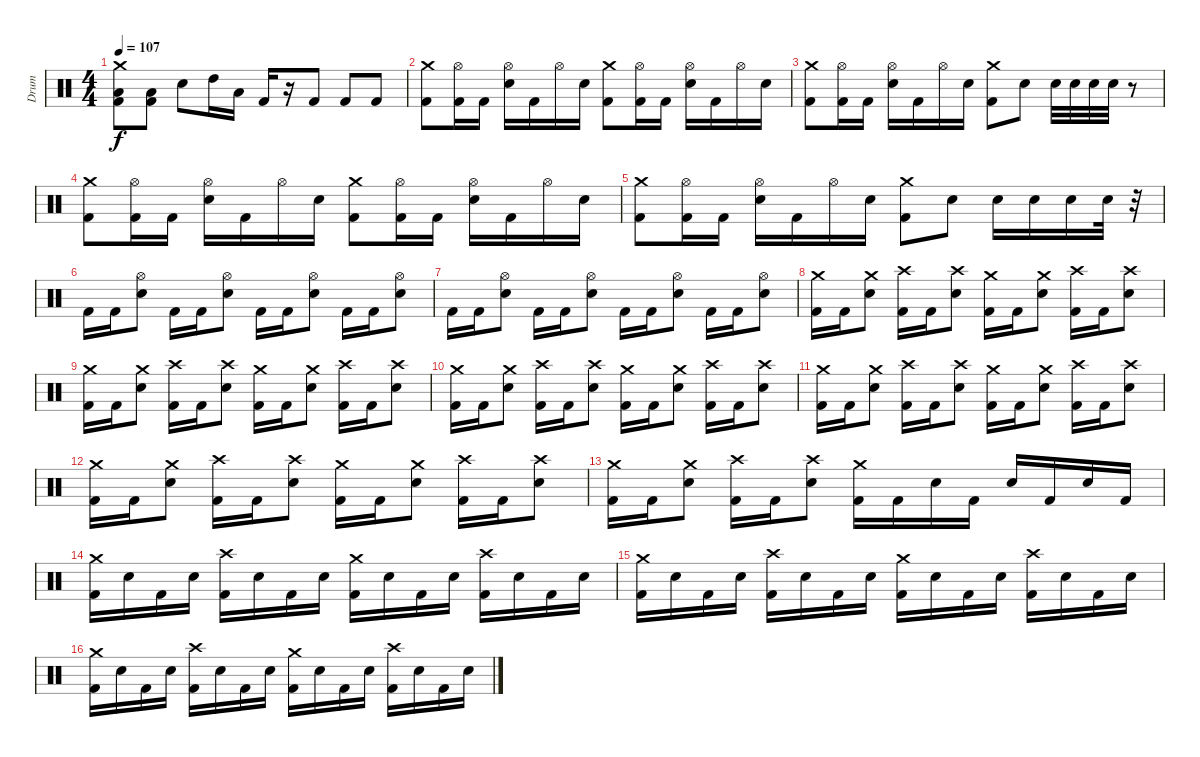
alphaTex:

\track ("Drum" "Drum") {instrument percussion}
\staff {score}
\articulation defaults
\ts (4 4)
\tempo 107
\clef neutral
\ks c
("Crash medium (hit)" "Low Floor Tom (hit)" "Kick (hit) 2").8{dy f} ("Low Floor Tom (hit)" "Kick (hit) 2").8 "Snare (hit) 2".8 "High Tom (hit)".16 "Low Tom (hit)".16 "Kick (hit) 2".16 r.16 "Kick (hit) 2".8 "Kick (hit) 2".8 "Kick (hit) 2".8 |
("Crash medium (hit)" "Kick (hit) 2").8 ("Hi-Hat (open)" "Kick (hit) 2").16 "Kick (hit) 2".16 ("Hi-Hat (open)" "Snare (hit) 2").16 "Kick (hit) 2".16 "Hi-Hat (open)".16 "Snare (hit) 2".16 ("Crash medium (hit)" "Kick (hit) 2").8 ("Hi-Hat (open)" "Kick (hit) 2").16 "Kick (hit) 2".16 ("Hi-Hat (open)" "Snare (hit) 2").16 "Kick (hit) 2".16 "Hi-Hat (open)".16 "Snare (hit) 2".16 |
("Crash medium (hit)" "Kick (hit) 2").8 ("Hi-Hat (open)" "Kick (hit) 2").16 "Kick (hit) 2".16 ("Hi-Hat (open)" "Snare (hit) 2").16 "Kick (hit) 2".16 "Hi-Hat (open)".16 "Snare (hit) 2".16 ("Crash medium (hit)" "Kick (hit) 2").8 "Snare (hit) 2".8 "Snare (hit) 2".32 "Snare (hit) 2".32 "Snare (hit) 2".32 "Snare (hit) 2".32 r.8 |
("Crash medium (hit)" "Kick (hit) 2").8 ("Hi-Hat (open)" "Kick (hit) 2").16 "Kick (hit) 2".16 ("Hi-Hat (open)" "Snare (hit) 2").16 "Kick (hit) 2".16 "Hi-Hat (open)".16 "Snare (hit) 2".16 ("Crash medium (hit)" "Kick (hit) 2").8 ("Hi-Hat (open)" "Kick (hit) 2").16 "Kick (hit) 2".16 ("Hi-Hat (open)" "Snare (hit) 2").16 "Kick (hit) 2".16 "Hi-Hat (open)".16 "Snare (hit) 2".16 |
("Crash medium (hit)" "Kick (hit) 2").8 ("Hi-Hat (open)" "Kick (hit) 2").16 "Kick (hit) 2".16 ("Hi-Hat (open)" "Snare (hit) 2").16 "Kick (hit) 2".16 "Hi-Hat (open)".16 "Snare (hit) 2".16 ("Crash medium (hit)" "Kick (hit) 2").8 "Snare (hit) 2".8 "Snare (hit) 2".16 "Snare (hit) 2".16 "Snare (hit) 2".16 "Snare (hit) 2".32 r.32 |
"Kick (hit) 2".16 "Kick (hit) 2".16 ("Hi-Hat (open)" "Snare (hit) 2").8 "Kick (hit) 2".16 "Kick (hit) 2".16 ("Hi-Hat (open)" "Snare (hit) 2").8 "Kick (hit) 2".16 "Kick (hit) 2".16 ("Hi-Hat (open)" "Snare (hit) 2").8 "Kick (hit) 2".16 "Kick (hit) 2".16 ("Hi-Hat (open)" "Snare (hit) 2").8 |
"Kick (hit) 2".16 "Kick (hit) 2".16 ("Hi-Hat (open)" "Snare (hit) 2").8 "Kick (hit) 2".16 "Kick (hit) 2".16 ("Hi-Hat (open)" "Snare (hit) 2").8 "Kick (hit) 2".16 "Kick (hit) 2".16 ("Hi-Hat (open)" "Snare (hit) 2").8 "Kick (hit) 2".16 "Kick (hit) 2".16 ("Hi-Hat (open)" "Snare (hit) 2").8 |
("Crash medium (hit)" "Kick (hit) 2").16 "Kick (hit) 2".16 ("Crash medium (hit)" "Snare (hit) 2").8 ("Crash high (hit)" "Kick (hit) 2").16 "Kick (hit) 2".16 ("Crash high (hit)" "Snare (hit) 2").8 ("Crash medium (hit)" "Kick (hit) 2").16 "Kick (hit) 2".16 ("Crash medium (hit)" "Snare (hit) 2").8 ("Crash high (hit)" "Kick (hit) 2").16 "Kick (hit) 2".16 ("Crash high (hit)" "Snare (hit) 2").8 |
("Crash medium (hit)" "Kick (hit) 2").16 "Kick (hit) 2".16 ("Crash medium (hit)" "Snare (hit) 2").8 ("Crash high (hit)" "Kick (hit) 2").16 "Kick (hit) 2".16 ("Crash high (hit)" "Snare (hit) 2").8 ("Crash medium (hit)" "Kick (hit) 2").16 "Kick (hit) 2".16 ("Crash medium (hit)" "Snare (hit) 2").8 ("Crash high (hit)" "Kick (hit) 2").16 "Kick (hit) 2".16 ("Crash high (hit)" "Snare (hit) 2").8 |
("Crash medium (hit)" "Kick (hit) 2").16 "Kick (hit) 2".16 ("Crash medium (hit)" "Snare (hit) 2").8 ("Crash high (hit)" "Kick (hit) 2").16 "Kick (hit) 2".16 ("Crash high (hit)" "Snare (hit) 2").8 ("Crash medium (hit)" "Kick (hit) 2").16 "Kick (hit) 2".16 ("Crash medium (hit)" "Snare (hit) 2").8 ("Crash high (hit)" "Kick (hit) 2").16 "Kick (hit) 2".16 ("Crash high (hit)" "Snare (hit) 2").8 |
("Crash medium (hit)" "Kick (hit) 2").16 "Kick (hit) 2".16 ("Crash medium (hit)" "Snare (hit) 2").8 ("Crash high (hit)" "Kick (hit) 2").16 "Kick (hit) 2".16 ("Crash high (hit)" "Snare (hit) 2").8 ("Crash medium (hit)" "Kick (hit) 2").16 "Kick (hit) 2".16 ("Crash medium (hit)" "Snare (hit) 2").8 ("Crash high (hit)" "Kick (hit) 2").16 "Kick (hit) 2".16 ("Crash high (hit)" "Snare (hit) 2").8 |
("Crash medium (hit)" "Kick (hit) 2").16 "Kick (hit) 2".16 ("Crash medium (hit)" "Snare (hit) 2").8 ("Crash high (hit)" "Kick (hit) 2").16 "Kick (hit) 2".16 ("Crash high (hit)" "Snare (hit) 2").8 ("Crash medium (hit)" "Kick (hit) 2").16 "Kick (hit) 2".16 ("Crash medium (hit)" "Snare (hit) 2").8 ("Crash high (hit)" "Kick (hit) 2").16 "Kick (hit) 2".16 ("Crash high (hit)" "Snare (hit) 2").8 |
("Crash medium (hit)" "Kick (hit) 2").16 "Kick (hit) 2".16 ("Crash medium (hit)" "Snare (hit) 2").8 ("Crash high (hit)" "Kick (hit) 2").16 "Kick (hit) 2".16 ("Crash high (hit)" "Snare (hit) 2").8 ("Crash medium (hit)" "Kick (hit) 2").16 "Kick (hit) 2".16 "Snare (hit) 2".16 "Kick (hit) 2".16 "Snare (hit) 2".16 "Kick (hit) 2".16 "Snare (hit) 2".16 "Kick (hit) 2".16 |
("Crash medium (hit)" "Kick (hit) 2").16 "Snare (hit) 2".16 "Kick (hit) 2".16 "Snare (hit) 2".16 ("Crash high (hit)" "Kick (hit) 2").16 "Snare (hit) 2".16 "Kick (hit) 2".16 "Snare (hit) 2".16 ("Crash medium (hit)" "Kick (hit) 2").16 "Snare (hit) 2".16 "Kick (hit) 2".16 "Snare (hit) 2".16 ("Crash high (hit)" "Kick (hit) 2").16 "Snare (hit) 2".16 "Kick (hit) 2".16 "Snare (hit) 2".16 |
("Crash medium (hit)" "Kick (hit) 2").16 "Snare (hit) 2".16 "Kick (hit) 2".16 "Snare (hit) 2".16 ("Crash high (hit)" "Kick (hit) 2").16 "Snare (hit) 2".16 "Kick (hit) 2".16 "Snare (hit) 2".16 ("Crash medium (hit)" "Kick (hit) 2").16 "Snare (hit) 2".16 "Kick (hit) 2".16 "Snare (hit) 2".16 ("Crash high (hit)" "Kick (hit) 2").16 "Snare (hit) 2".16 "Kick (hit) 2".16 "Snare (hit) 2".16 |
("Crash medium (hit)" "Kick (hit) 2").16 "Snare (hit) 2".16 "Kick (hit) 2".16 "Snare (hit) 2".16 ("Crash high (hit)" "Kick (hit) 2").16 "Snare (hit) 2".16 "Kick (hit) 2".16 "Snare (hit) 2".16 ("Crash medium (hit)" "Kick (hit) 2").16 "Snare (hit) 2".16 "Kick (hit) 2".16 "Snare (hit) 2".16 ("Crash high (hit)" "Kick (hit) 2").16 "Snare (hit) 2".16 "Kick (hit) 2".16 "Snare (hit) 2".16
